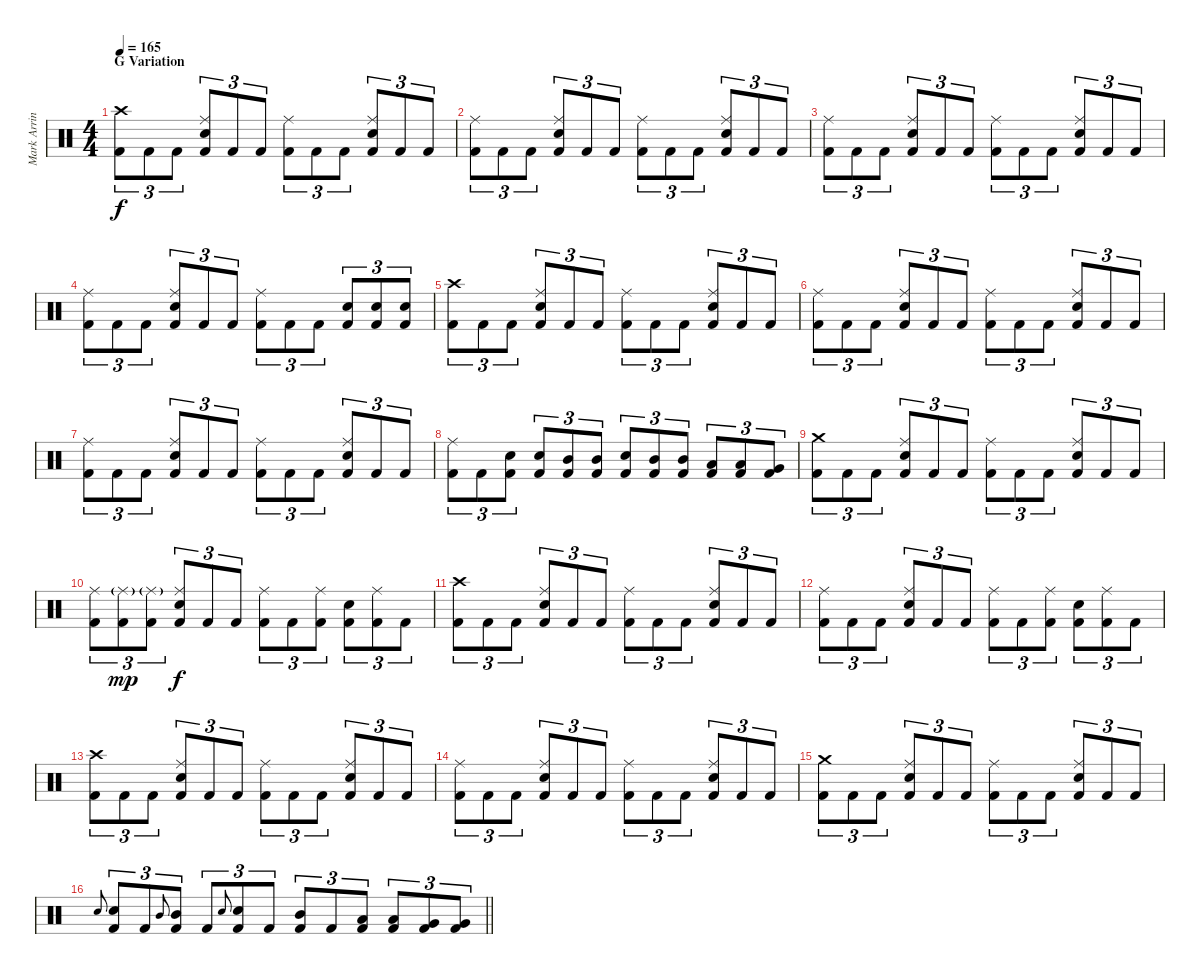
\track ("Mark Arrington Drums" "Mark Arrin") {instrument percussion}
\staff {score}
\articulation defaults
\ts (4 4)
\section ("" "G Variation")
\tempo 165
\clef neutral
\ks c
("Crash high (hit)" "Kick (hit) 2").8{tu (3 2) dy f} "Kick (hit) 2".8{tu (3 2)} "Kick (hit) 2".8{tu (3 2)} ("Ride (middle)" "Electric Snare (hit)" "Kick (hit) 2").8{tu (3 2)} "Kick (hit) 2".8{tu (3 2)} "Kick (hit) 2".8{tu (3 2)} ("Ride (middle)" "Kick (hit) 2").8{tu (3 2)} "Kick (hit) 2".8{tu (3 2)} "Kick (hit) 2".8{tu (3 2)} ("Ride (middle)" "Electric Snare (hit)" "Kick (hit) 2").8{tu (3 2)} "Kick (hit) 2".8{tu (3 2)} "Kick (hit) 2".8{tu (3 2)} |
("Ride (middle)" "Kick (hit) 2").8{tu (3 2)} "Kick (hit) 2".8{tu (3 2)} "Kick (hit) 2".8{tu (3 2)} ("Ride (middle)" "Electric Snare (hit)" "Kick (hit) 2").8{tu (3 2)} "Kick (hit) 2".8{tu (3 2)} "Kick (hit) 2".8{tu (3 2)} ("Ride (middle)" "Kick (hit) 2").8{tu (3 2)} "Kick (hit) 2".8{tu (3 2)} "Kick (hit) 2".8{tu (3 2)} ("Ride (middle)" "Electric Snare (hit)" "Kick (hit) 2").8{tu (3 2)} "Kick (hit) 2".8{tu (3 2)} "Kick (hit) 2".8{tu (3 2)} |
("Ride (middle)" "Kick (hit) 2").8{tu (3 2)} "Kick (hit) 2".8{tu (3 2)} "Kick (hit) 2".8{tu (3 2)} ("Ride (middle)" "Electric Snare (hit)" "Kick (hit) 2").8{tu (3 2)} "Kick (hit) 2".8{tu (3 2)} "Kick (hit) 2".8{tu (3 2)} ("Ride (middle)" "Kick (hit) 2").8{tu (3 2)} "Kick (hit) 2".8{tu (3 2)} "Kick (hit) 2".8{tu (3 2)} ("Ride (middle)" "Electric Snare (hit)" "Kick (hit) 2").8{tu (3 2)} "Kick (hit) 2".8{tu (3 2)} "Kick (hit) 2".8{tu (3 2)} |
("Ride (middle)" "Kick (hit) 2").8{tu (3 2)} "Kick (hit) 2".8{tu (3 2)} "Kick (hit) 2".8{tu (3 2)} ("Ride (middle)" "Electric Snare (hit)" "Kick (hit) 2").8{tu (3 2)} "Kick (hit) 2".8{tu (3 2)} "Kick (hit) 2".8{tu (3 2)} ("Ride (middle)" "Kick (hit) 2").8{tu (3 2)} "Kick (hit) 2".8{tu (3 2)} "Kick (hit) 2".8{tu (3 2)} ("Electric Snare (hit)" "Kick (hit) 2").8{tu (3 2)} ("Electric Snare (hit)" "Kick (hit) 2").8{tu (3 2)} ("Electric Snare (hit)" "Kick (hit) 2").8{tu (3 2)} |
("Crash high (hit)" "Kick (hit) 2").8{tu (3 2)} "Kick (hit) 2".8{tu (3 2)} "Kick (hit) 2".8{tu (3 2)} ("Ride (middle)" "Electric Snare (hit)" "Kick (hit) 2").8{tu (3 2)} "Kick (hit) 2".8{tu (3 2)} "Kick (hit) 2".8{tu (3 2)} ("Ride (middle)" "Kick (hit) 2").8{tu (3 2)} "Kick (hit) 2".8{tu (3 2)} "Kick (hit) 2".8{tu (3 2)} ("Ride (middle)" "Electric Snare (hit)" "Kick (hit) 2").8{tu (3 2)} "Kick (hit) 2".8{tu (3 2)} "Kick (hit) 2".8{tu (3 2)} |
("Ride (middle)" "Kick (hit) 2").8{tu (3 2)} "Kick (hit) 2".8{tu (3 2)} "Kick (hit) 2".8{tu (3 2)} ("Ride (middle)" "Electric Snare (hit)" "Kick (hit) 2").8{tu (3 2)} "Kick (hit) 2".8{tu (3 2)} "Kick (hit) 2".8{tu (3 2)} ("Ride (middle)" "Kick (hit) 2").8{tu (3 2)} "Kick (hit) 2".8{tu (3 2)} "Kick (hit) 2".8{tu (3 2)} ("Ride (middle)" "Electric Snare (hit)" "Kick (hit) 2").8{tu (3 2)} "Kick (hit) 2".8{tu (3 2)} "Kick (hit) 2".8{tu (3 2)} |
("Ride (middle)" "Kick (hit) 2").8{tu (3 2)} "Kick (hit) 2".8{tu (3 2)} "Kick (hit) 2".8{tu (3 2)} ("Ride (middle)" "Electric Snare (hit)" "Kick (hit) 2").8{tu (3 2)} "Kick (hit) 2".8{tu (3 2)} "Kick (hit) 2".8{tu (3 2)} ("Ride (middle)" "Kick (hit) 2").8{tu (3 2)} "Kick (hit) 2".8{tu (3 2)} "Kick (hit) 2".8{tu (3 2)} ("Ride (middle)" "Electric Snare (hit)" "Kick (hit) 2").8{tu (3 2)} "Kick (hit) 2".8{tu (3 2)} "Kick (hit) 2".8{tu (3 2)} |
("Ride (middle)" "Kick (hit) 2").8{tu (3 2)} "Kick (hit) 2".8{tu (3 2)} ("Electric Snare (hit)" "Kick (hit) 2").8{tu (3 2)} ("Electric Snare (hit)" "Kick (hit) 2").8{tu (3 2)} ("Mid Tom (hit)" "Kick (hit) 2").8{tu (3 2)} ("Mid Tom (hit)" "Kick (hit) 2").8{tu (3 2)} ("Electric Snare (hit)" "Kick (hit) 2").8{tu (3 2)} ("Mid Tom (hit)" "Kick (hit) 2").8{tu (3 2)} ("Mid Tom (hit)" "Kick (hit) 2").8{tu (3 2)} ("Low Tom (hit)" "Kick (hit) 2").8{tu (3 2)} ("Low Tom (hit)" "Kick (hit) 2").8{tu (3 2)} ("Very Low Tom (hit)" "Kick (hit) 2").8{tu (3 2)} |
("Crash medium (hit)" "Kick (hit) 2").8{tu (3 2)} "Kick (hit) 2".8{tu (3 2)} "Kick (hit) 2".8{tu (3 2)} ("Ride (middle)" "Electric Snare (hit)" "Kick (hit) 2").8{tu (3 2)} "Kick (hit) 2".8{tu (3 2)} "Kick (hit) 2".8{tu (3 2)} ("Ride (middle)" "Kick (hit) 2").8{tu (3 2)} "Kick (hit) 2".8{tu (3 2)} "Kick (hit) 2".8{tu (3 2)} ("Ride (middle)" "Electric Snare (hit)" "Kick (hit) 2").8{tu (3 2)} "Kick (hit) 2".8{tu (3 2)} "Kick (hit) 2".8{tu (3 2)} |
("Ride (middle)" "Kick (hit) 2").8{tu (3 2)} ("Ride (middle)"{g} "Kick (hit) 2").8{tu (3 2) dy mp} ("Ride (middle)"{g} "Kick (hit) 2").8{tu (3 2)} ("Ride (middle)" "Electric Snare (hit)" "Kick (hit) 2").8{tu (3 2) dy f} "Kick (hit) 2".8{tu (3 2)} "Kick (hit) 2".8{tu (3 2)} ("Ride (middle)" "Kick (hit) 2").8{tu (3 2)} "Kick (hit) 2".8{tu (3 2)} ("Ride (middle)" "Kick (hit) 2").8{tu (3 2)} ("Electric Snare (hit)" "Kick (hit) 2").8{tu (3 2)} ("Ride (middle)" "Kick (hit) 2").8{tu (3 2)} "Kick (hit) 2".8{tu (3 2)} |
("Crash high (hit)" "Kick (hit) 2").8{tu (3 2)} "Kick (hit) 2".8{tu (3 2)} "Kick (hit) 2".8{tu (3 2)} ("Ride (middle)" "Electric Snare (hit)" "Kick (hit) 2").8{tu (3 2)} "Kick (hit) 2".8{tu (3 2)} "Kick (hit) 2".8{tu (3 2)} ("Ride (middle)" "Kick (hit) 2").8{tu (3 2)} "Kick (hit) 2".8{tu (3 2)} "Kick (hit) 2".8{tu (3 2)} ("Ride (middle)" "Electric Snare (hit)" "Kick (hit) 2").8{tu (3 2)} "Kick (hit) 2".8{tu (3 2)} "Kick (hit) 2".8{tu (3 2)} |
("Ride (middle)" "Kick (hit) 2").8{tu (3 2)} "Kick (hit) 2".8{tu (3 2)} "Kick (hit) 2".8{tu (3 2)} ("Ride (middle)" "Electric Snare (hit)" "Kick (hit) 2").8{tu (3 2)} "Kick (hit) 2".8{tu (3 2)} "Kick (hit) 2".8{tu (3 2)} ("Ride (middle)" "Kick (hit) 2").8{tu (3 2)} "Kick (hit) 2".8{tu (3 2)} ("Ride (middle)" "Kick (hit) 2").8{tu (3 2)} ("Electric Snare (hit)" "Kick (hit) 2").8{tu (3 2)} ("Ride (middle)" "Kick (hit) 2").8{tu (3 2)} "Kick (hit) 2".8{tu (3 2)} |
("Crash high (hit)" "Kick (hit) 2").8{tu (3 2)} "Kick (hit) 2".8{tu (3 2)} "Kick (hit) 2".8{tu (3 2)} ("Ride (middle)" "Electric Snare (hit)" "Kick (hit) 2").8{tu (3 2)} "Kick (hit) 2".8{tu (3 2)} "Kick (hit) 2".8{tu (3 2)} ("Ride (middle)" "Kick (hit) 2").8{tu (3 2)} "Kick (hit) 2".8{tu (3 2)} "Kick (hit) 2".8{tu (3 2)} ("Ride (middle)" "Electric Snare (hit)" "Kick (hit) 2").8{tu (3 2)} "Kick (hit) 2".8{tu (3 2)} "Kick (hit) 2".8{tu (3 2)} |
("Ride (middle)" "Kick (hit) 2").8{tu (3 2)} "Kick (hit) 2".8{tu (3 2)} "Kick (hit) 2".8{tu (3 2)} ("Ride (middle)" "Electric Snare (hit)" "Kick (hit) 2").8{tu (3 2)} "Kick (hit) 2".8{tu (3 2)} "Kick (hit) 2".8{tu (3 2)} ("Ride (middle)" "Kick (hit) 2").8{tu (3 2)} "Kick (hit) 2".8{tu (3 2)} "Kick (hit) 2".8{tu (3 2)} ("Ride (middle)" "Electric Snare (hit)" "Kick (hit) 2").8{tu (3 2)} "Kick (hit) 2".8{tu (3 2)} "Kick (hit) 2".8{tu (3 2)} |
("Crash medium (hit)" "Kick (hit) 2").8{tu (3 2)} "Kick (hit) 2".8{tu (3 2)} "Kick (hit) 2".8{tu (3 2)} ("Ride (middle)" "Electric Snare (hit)" "Kick (hit) 2").8{tu (3 2)} "Kick (hit) 2".8{tu (3 2)} "Kick (hit) 2".8{tu (3 2)} ("Ride (middle)" "Kick (hit) 2").8{tu (3 2)} "Kick (hit) 2".8{tu (3 2)} "Kick (hit) 2".8{tu (3 2)} ("Ride (middle)" "Electric Snare (hit)" "Kick (hit) 2").8{tu (3 2)} "Kick (hit) 2".8{tu (3 2)} "Kick (hit) 2".8{tu (3 2)} |
\barLineRight lightlight "Electric Snare (hit)".8{gr onbeat}
("Electric Snare (hit)" "Kick (hit) 2").8{tu (3 2)} "Kick (hit) 2".8{tu (3 2)} "Mid Tom (hit)".8{gr onbeat} ("Mid Tom (hit)" "Kick (hit) 2").8{tu (3 2)} "Kick (hit) 2".8{tu (3 2)} "Electric Snare (hit)".8{gr onbeat} ("Electric Snare (hit)" "Kick (hit) 2").8{tu (3 2)} "Kick (hit) 2".8{tu (3 2)} ("Mid Tom (hit)" "Kick (hit) 2").8{tu (3 2)} "Kick (hit) 2".8{tu (3 2)} ("Low Tom (hit)" "Kick (hit) 2").8{tu (3 2)} ("Low Tom (hit)" "Kick (hit) 2").8{tu (3 2)} ("Very Low Tom (hit)" "Kick (hit) 2").8{tu (3 2)} ("Very Low Tom (hit)" "Kick (hit) 2").8{tu (3 2)}
